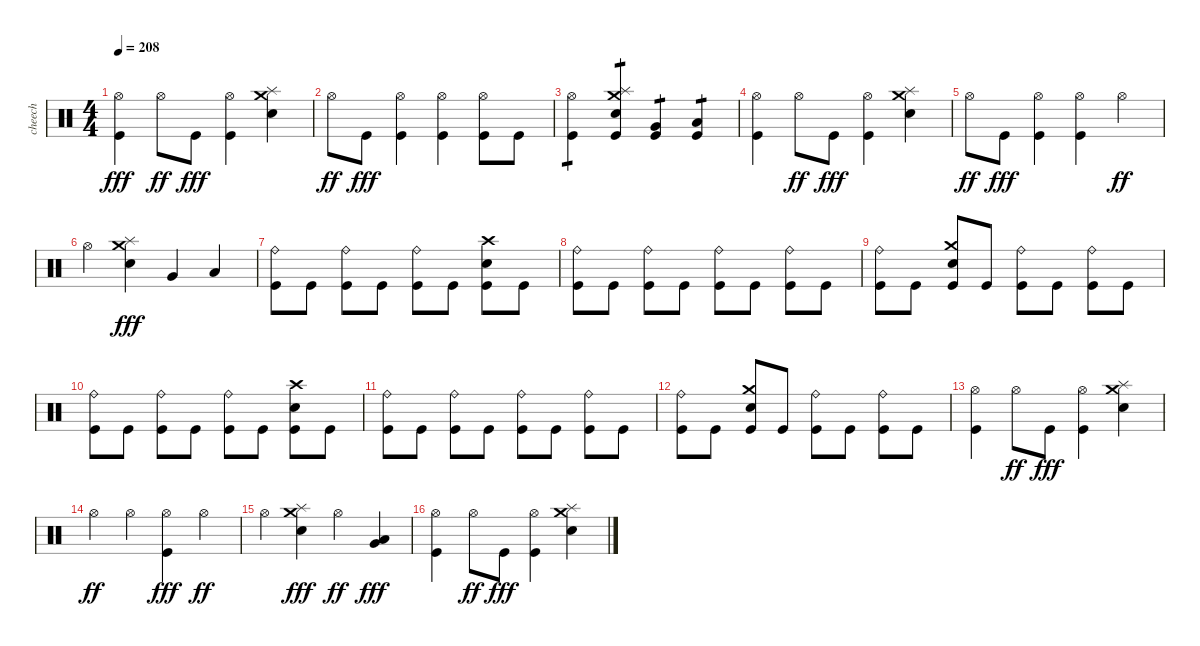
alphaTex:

\track ("cheech" "cheech") {instrument percussion}
\staff {score}
\articulation defaults
\ts (4 4)
\tempo 208
\clef neutral
\ks c
("Hi-Hat (open)" "Kick (hit)").4{dy fff} "Hi-Hat (open)".8{dy ff} "Kick (hit)".8{dy fff} ("Hi-Hat (open)" "Kick (hit)").4 ("Crash medium (hit)" "Splash (hit)" "Electric Snare (hit)").4 |
"Hi-Hat (open)".8{dy ff} "Kick (hit)".8{dy fff} ("Hi-Hat (open)" "Kick (hit)").4 ("Hi-Hat (open)" "Kick (hit)").4 ("Hi-Hat (open)" "Kick (hit)").8 "Kick (hit)".8 |
("Hi-Hat (open)" "Kick (hit)").4{tp 1} ("Crash medium (hit)" "Splash (hit)" "Electric Snare (hit)" "Kick (hit)").4{tp 1} ("Very Low Tom (hit)" "Kick (hit)").4{tp 1} ("Low Floor Tom (hit)" "Kick (hit)").4{tp 1} |
("Hi-Hat (open)" "Kick (hit)").4 "Hi-Hat (open)".8{dy ff} "Kick (hit)".8{dy fff} ("Hi-Hat (open)" "Kick (hit)").4 ("Crash medium (hit)" "Splash (hit)" "Electric Snare (hit)").4 |
"Hi-Hat (open)".8{dy ff} "Kick (hit)".8{dy fff} ("Hi-Hat (open)" "Kick (hit)").4 ("Hi-Hat (open)" "Kick (hit)").4 "Hi-Hat (open)".4{dy ff} |
"Hi-Hat (open)".4 ("Crash medium (hit)" "Splash (hit)" "Electric Snare (hit)").4{dy fff} "Very Low Tom (hit)".4 "Low Floor Tom (hit)".4 |
("Ride (bell)" "Kick (hit)").8 "Kick (hit)".8 ("Ride (bell)" "Kick (hit)").8 "Kick (hit)".8 ("Ride (bell)" "Kick (hit)").8 "Kick (hit)".8 ("Crash high (hit)" "Electric Snare (hit)" "Kick (hit)").8 "Kick (hit)".8 |
("Ride (bell)" "Kick (hit)").8 "Kick (hit)".8 ("Ride (bell)" "Kick (hit)").8 "Kick (hit)".8 ("Ride (bell)" "Kick (hit)").8 "Kick (hit)".8 ("Ride (bell)" "Kick (hit)").8 "Kick (hit)".8 |
("Ride (bell)" "Kick (hit)").8 "Kick (hit)".8 ("Crash medium (hit)" "Electric Snare (hit)" "Kick (hit)").8 "Kick (hit)".8 ("Ride (bell)" "Kick (hit)").8 "Kick (hit)".8 ("Ride (bell)" "Kick (hit)").8 "Kick (hit)".8 |
("Ride (bell)" "Kick (hit)").8 "Kick (hit)".8 ("Ride (bell)" "Kick (hit)").8 "Kick (hit)".8 ("Ride (bell)" "Kick (hit)").8 "Kick (hit)".8 ("Crash high (hit)" "Electric Snare (hit)" "Kick (hit)").8 "Kick (hit)".8 |
("Ride (bell)" "Kick (hit)").8 "Kick (hit)".8 ("Ride (bell)" "Kick (hit)").8 "Kick (hit)".8 ("Ride (bell)" "Kick (hit)").8 "Kick (hit)".8 ("Ride (bell)" "Kick (hit)").8 "Kick (hit)".8 |
("Ride (bell)" "Kick (hit)").8 "Kick (hit)".8 ("Crash medium (hit)" "Electric Snare (hit)" "Kick (hit)").8 "Kick (hit)".8 ("Ride (bell)" "Kick (hit)").8 "Kick (hit)".8 ("Ride (bell)" "Kick (hit)").8 "Kick (hit)".8 |
("Hi-Hat (open)" "Kick (hit)").4 "Hi-Hat (open)".8{dy ff} "Kick (hit)".8{dy fff} ("Hi-Hat (open)" "Kick (hit)").4 ("Crash medium (hit)" "Splash (hit)" "Electric Snare (hit)").4 |
"Hi-Hat (open)".4{dy ff} "Hi-Hat (open)".4 ("Hi-Hat (open)" "Kick (hit)").4{dy fff} "Hi-Hat (open)".4{dy ff} |
"Hi-Hat (open)".4 ("Crash medium (hit)" "Splash (hit)" "Electric Snare (hit)").4{dy fff} "Hi-Hat (open)".4{dy ff} ("Very Low Tom (hit)" "Low Floor Tom (hit)").4{dy fff} |
("Hi-Hat (open)" "Kick (hit)").4 "Hi-Hat (open)".8{dy ff} "Kick (hit)".8{dy fff} ("Hi-Hat (open)" "Kick (hit)").4 ("Crash medium (hit)" "Splash (hit)" "Electric Snare (hit)").4
